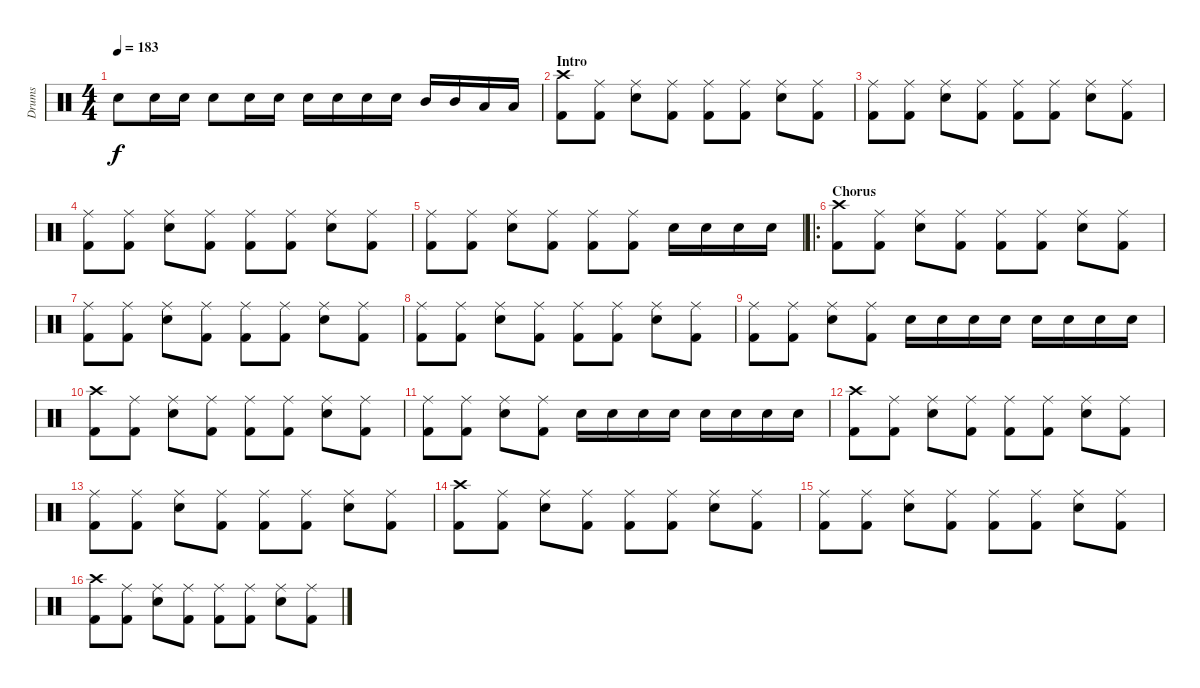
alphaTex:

\track ("Drums" "Drums") {instrument percussion}
\staff {score}
\articulation defaults
\ts (4 4)
\tempo 183
\clef neutral
\ks c "Electric Snare (hit)".8{dy f} "Electric Snare (hit)".16 "Electric Snare (hit)".16 "Electric Snare (hit)".8 "Electric Snare (hit)".16 "Electric Snare (hit)".16 "Electric Snare (hit)".16 "Electric Snare (hit)".16 "Electric Snare (hit)".16 "Electric Snare (hit)".16 "Mid Tom (hit)".16 "Mid Tom (hit)".16 "Low Tom (hit)".16 "Low Tom (hit)".16
|
\section ("" "Intro")
("Crash high (hit)" "Kick (hit) 2").8 ("Ride (middle)" "Kick (hit) 2").8 ("Ride (middle)" "Electric Snare (hit)").8 ("Ride (middle)" "Kick (hit) 2").8 ("Ride (middle)" "Kick (hit) 2").8 ("Ride (middle)" "Kick (hit) 2").8 ("Ride (middle)" "Electric Snare (hit)").8 ("Ride (middle)" "Kick (hit) 2").8 |
("Ride (middle)" "Kick (hit) 2").8 ("Ride (middle)" "Kick (hit) 2").8 ("Ride (middle)" "Electric Snare (hit)").8 ("Ride (middle)" "Kick (hit) 2").8 ("Ride (middle)" "Kick (hit) 2").8 ("Ride (middle)" "Kick (hit) 2").8 ("Ride (middle)" "Electric Snare (hit)").8 ("Ride (middle)" "Kick (hit) 2").8 |
("Ride (middle)" "Kick (hit) 2").8 ("Ride (middle)" "Kick (hit) 2").8 ("Ride (middle)" "Electric Snare (hit)").8 ("Ride (middle)" "Kick (hit) 2").8 ("Ride (middle)" "Kick (hit) 2").8 ("Ride (middle)" "Kick (hit) 2").8 ("Ride (middle)" "Electric Snare (hit)").8 ("Ride (middle)" "Kick (hit) 2").8 |
("Ride (middle)" "Kick (hit) 2").8 ("Ride (middle)" "Kick (hit) 2").8 ("Ride (middle)" "Electric Snare (hit)").8 ("Ride (middle)" "Kick (hit) 2").8 ("Ride (middle)" "Kick (hit) 2").8 ("Ride (middle)" "Kick (hit) 2").8 "Electric Snare (hit)".16 "Electric Snare (hit)".16 "Electric Snare (hit)".16 "Electric Snare (hit)".16 |
\ro
\section ("" "Chorus")
("Crash high (hit)" "Kick (hit) 2").8 ("Ride (middle)" "Kick (hit) 2").8 ("Ride (middle)" "Electric Snare (hit)").8 ("Ride (middle)" "Kick (hit) 2").8 ("Ride (middle)" "Kick (hit) 2").8 ("Ride (middle)" "Kick (hit) 2").8 ("Ride (middle)" "Electric Snare (hit)").8 ("Ride (middle)" "Kick (hit) 2").8 |
("Ride (middle)" "Kick (hit) 2").8 ("Ride (middle)" "Kick (hit) 2").8 ("Ride (middle)" "Electric Snare (hit)").8 ("Ride (middle)" "Kick (hit) 2").8 ("Ride (middle)" "Kick (hit) 2").8 ("Ride (middle)" "Kick (hit) 2").8 ("Ride (middle)" "Electric Snare (hit)").8 ("Ride (middle)" "Kick (hit) 2").8 |
("Ride (middle)" "Kick (hit) 2").8 ("Ride (middle)" "Kick (hit) 2").8 ("Ride (middle)" "Electric Snare (hit)").8 ("Ride (middle)" "Kick (hit) 2").8 ("Ride (middle)" "Kick (hit) 2").8 ("Ride (middle)" "Kick (hit) 2").8 ("Ride (middle)" "Electric Snare (hit)").8 ("Ride (middle)" "Kick (hit) 2").8 |
("Ride (middle)" "Kick (hit) 2").8 ("Ride (middle)" "Kick (hit) 2").8 ("Ride (middle)" "Electric Snare (hit)").8 ("Ride (middle)" "Kick (hit) 2").8 "Electric Snare (hit)".16 "Electric Snare (hit)".16 "Electric Snare (hit)".16 "Electric Snare (hit)".16 "Electric Snare (hit)".16 "Electric Snare (hit)".16 "Electric Snare (hit)".16 "Electric Snare (hit)".16 |
("Crash high (hit)" "Kick (hit) 2").8 ("Ride (middle)" "Kick (hit) 2").8 ("Ride (middle)" "Electric Snare (hit)").8 ("Ride (middle)" "Kick (hit) 2").8 ("Ride (middle)" "Kick (hit) 2").8 ("Ride (middle)" "Kick (hit) 2").8 ("Ride (middle)" "Electric Snare (hit)").8 ("Ride (middle)" "Kick (hit) 2").8 |
("Ride (middle)" "Kick (hit) 2").8 ("Ride (middle)" "Kick (hit) 2").8 ("Ride (middle)" "Electric Snare (hit)").8 ("Ride (middle)" "Kick (hit) 2").8 "Electric Snare (hit)".16 "Electric Snare (hit)".16 "Electric Snare (hit)".16 "Electric Snare (hit)".16 "Electric Snare (hit)".16 "Electric Snare (hit)".16 "Electric Snare (hit)".16 "Electric Snare (hit)".16 |
("Crash high (hit)" "Kick (hit) 2").8 ("Ride (middle)" "Kick (hit) 2").8 ("Ride (middle)" "Electric Snare (hit)").8 ("Ride (middle)" "Kick (hit) 2").8 ("Ride (middle)" "Kick (hit) 2").8 ("Ride (middle)" "Kick (hit) 2").8 ("Ride (middle)" "Electric Snare (hit)").8 ("Ride (middle)" "Kick (hit) 2").8 |
("Ride (middle)" "Kick (hit) 2").8 ("Ride (middle)" "Kick (hit) 2").8 ("Ride (middle)" "Electric Snare (hit)").8 ("Ride (middle)" "Kick (hit) 2").8 ("Ride (middle)" "Kick (hit) 2").8 ("Ride (middle)" "Kick (hit) 2").8 ("Ride (middle)" "Electric Snare (hit)").8 ("Ride (middle)" "Kick (hit) 2").8 |
("Crash high (hit)" "Kick (hit) 2").8 ("Ride (middle)" "Kick (hit) 2").8 ("Ride (middle)" "Electric Snare (hit)").8 ("Ride (middle)" "Kick (hit) 2").8 ("Ride (middle)" "Kick (hit) 2").8 ("Ride (middle)" "Kick (hit) 2").8 ("Ride (middle)" "Electric Snare (hit)").8 ("Ride (middle)" "Kick (hit) 2").8 |
("Ride (middle)" "Kick (hit) 2").8 ("Ride (middle)" "Kick (hit) 2").8 ("Ride (middle)" "Electric Snare (hit)").8 ("Ride (middle)" "Kick (hit) 2").8 ("Ride (middle)" "Kick (hit) 2").8 ("Ride (middle)" "Kick (hit) 2").8 ("Ride (middle)" "Electric Snare (hit)").8 ("Ride (middle)" "Kick (hit) 2").8 |
("Crash high (hit)" "Kick (hit) 2").8 ("Ride (middle)" "Kick (hit) 2").8 ("Ride (middle)" "Electric Snare (hit)").8 ("Ride (middle)" "Kick (hit) 2").8 ("Ride (middle)" "Kick (hit) 2").8 ("Ride (middle)" "Kick (hit) 2").8 ("Ride (middle)" "Electric Snare (hit)").8 ("Ride (middle)" "Kick (hit) 2").8
